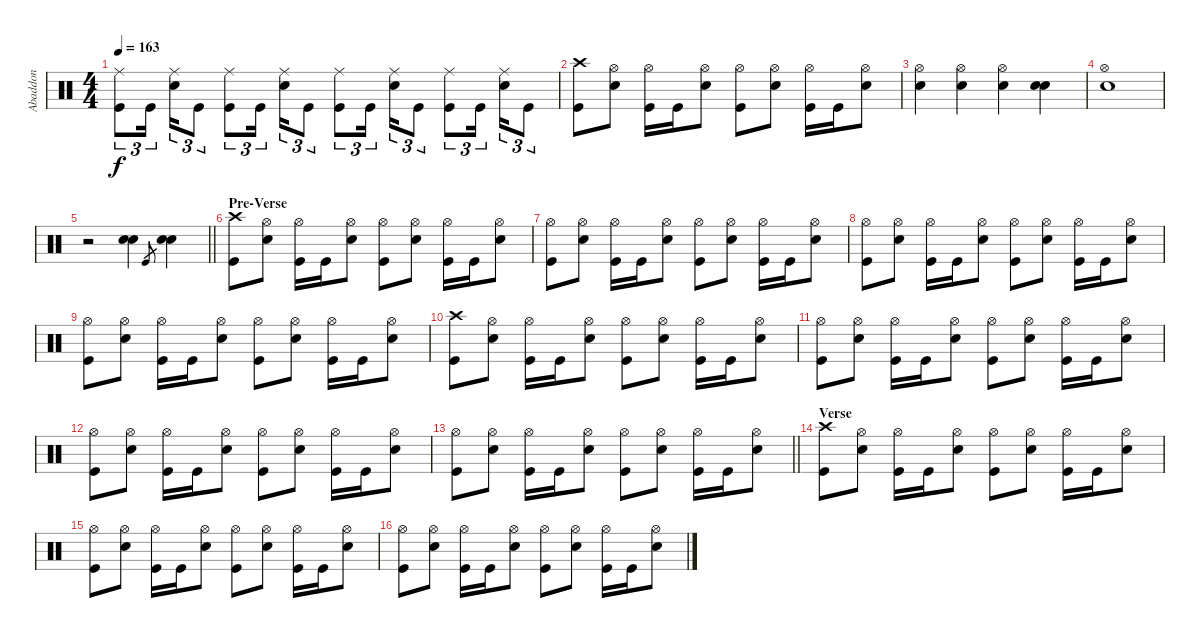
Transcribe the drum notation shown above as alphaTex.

\track ("Abaddon" "Abaddon") {instrument percussion}
\staff {score}
\articulation defaults
\ts (4 4)
\tempo 163
\clef neutral
\ks c
("Ride (middle)" "Kick (hit)").8{tu (3 2) dy f} "Kick (hit)".16{tu (3 2) beam splitsecondary} ("Ride (middle)" "Electric Snare (hit)").16{tu (3 2)} "Kick (hit)".8{tu (3 2)} ("Ride (middle)" "Kick (hit)").8{tu (3 2)} "Kick (hit)".16{tu (3 2) beam splitsecondary} ("Ride (middle)" "Electric Snare (hit)").16{tu (3 2)} "Kick (hit)".8{tu (3 2)} ("Ride (middle)" "Kick (hit)").8{tu (3 2)} "Kick (hit)".16{tu (3 2) beam splitsecondary} ("Ride (middle)" "Electric Snare (hit)").16{tu (3 2)} "Kick (hit)".8{tu (3 2)} ("Ride (middle)" "Kick (hit)").8{tu (3 2)} "Kick (hit)".16{tu (3 2) beam splitsecondary} ("Ride (middle)" "Electric Snare (hit)").16{tu (3 2)} "Kick (hit)".8{tu (3 2)} |
("Crash high (hit)" "Kick (hit)").8 ("Hi-Hat (open)" "Electric Snare (hit)").8 ("Hi-Hat (open)" "Kick (hit)").16 "Kick (hit)".16 ("Hi-Hat (open)" "Electric Snare (hit)").8 ("Hi-Hat (open)" "Kick (hit)").8 ("Hi-Hat (open)" "Electric Snare (hit)").8 ("Hi-Hat (open)" "Kick (hit)").16 "Kick (hit)".16 ("Hi-Hat (open)" "Electric Snare (hit)").8 |
("Hi-Hat (open)" "Electric Snare (hit)").4 ("Hi-Hat (open)" "Electric Snare (hit)").4 ("Hi-Hat (open)" "Electric Snare (hit)").4 ("Electric Snare (hit)" "Electric Snare (hit)").4 |
("Hi-Hat (open)" "Electric Snare (hit)").1 |
\barLineRight lightlight
r.2 ("Electric Snare (hit)" "Electric Snare (hit)").4 "Kick (hit)".8{gr} ("Electric Snare (hit)" "Electric Snare (hit)").4 |
\section ("" "Pre-Verse")
("Crash high (hit)" "Kick (hit)").8 ("Hi-Hat (open)" "Electric Snare (hit)").8 ("Hi-Hat (open)" "Kick (hit)").16 "Kick (hit)".16 ("Hi-Hat (open)" "Electric Snare (hit)").8 ("Hi-Hat (open)" "Kick (hit)").8 ("Hi-Hat (open)" "Electric Snare (hit)").8 ("Hi-Hat (open)" "Kick (hit)").16 "Kick (hit)".16 ("Hi-Hat (open)" "Electric Snare (hit)").8 |
("Hi-Hat (open)" "Kick (hit)").8 ("Hi-Hat (open)" "Electric Snare (hit)").8 ("Hi-Hat (open)" "Kick (hit)").16 "Kick (hit)".16 ("Hi-Hat (open)" "Electric Snare (hit)").8 ("Hi-Hat (open)" "Kick (hit)").8 ("Hi-Hat (open)" "Electric Snare (hit)").8 ("Hi-Hat (open)" "Kick (hit)").16 "Kick (hit)".16 ("Hi-Hat (open)" "Electric Snare (hit)").8 |
("Hi-Hat (open)" "Kick (hit)").8 ("Hi-Hat (open)" "Electric Snare (hit)").8 ("Hi-Hat (open)" "Kick (hit)").16 "Kick (hit)".16 ("Hi-Hat (open)" "Electric Snare (hit)").8 ("Hi-Hat (open)" "Kick (hit)").8 ("Hi-Hat (open)" "Electric Snare (hit)").8 ("Hi-Hat (open)" "Kick (hit)").16 "Kick (hit)".16 ("Hi-Hat (open)" "Electric Snare (hit)").8 |
("Hi-Hat (open)" "Kick (hit)").8 ("Hi-Hat (open)" "Electric Snare (hit)").8 ("Hi-Hat (open)" "Kick (hit)").16 "Kick (hit)".16 ("Hi-Hat (open)" "Electric Snare (hit)").8 ("Hi-Hat (open)" "Kick (hit)").8 ("Hi-Hat (open)" "Electric Snare (hit)").8 ("Hi-Hat (open)" "Kick (hit)").16 "Kick (hit)".16 ("Hi-Hat (open)" "Electric Snare (hit)").8 |
("Crash high (hit)" "Kick (hit)").8 ("Hi-Hat (open)" "Electric Snare (hit)").8 ("Hi-Hat (open)" "Kick (hit)").16 "Kick (hit)".16 ("Hi-Hat (open)" "Electric Snare (hit)").8 ("Hi-Hat (open)" "Kick (hit)").8 ("Hi-Hat (open)" "Electric Snare (hit)").8 ("Hi-Hat (open)" "Kick (hit)").16 "Kick (hit)".16 ("Hi-Hat (open)" "Electric Snare (hit)").8 |
("Hi-Hat (open)" "Kick (hit)").8 ("Hi-Hat (open)" "Electric Snare (hit)").8 ("Hi-Hat (open)" "Kick (hit)").16 "Kick (hit)".16 ("Hi-Hat (open)" "Electric Snare (hit)").8 ("Hi-Hat (open)" "Kick (hit)").8 ("Hi-Hat (open)" "Electric Snare (hit)").8 ("Hi-Hat (open)" "Kick (hit)").16 "Kick (hit)".16 ("Hi-Hat (open)" "Electric Snare (hit)").8 |
("Hi-Hat (open)" "Kick (hit)").8 ("Hi-Hat (open)" "Electric Snare (hit)").8 ("Hi-Hat (open)" "Kick (hit)").16 "Kick (hit)".16 ("Hi-Hat (open)" "Electric Snare (hit)").8 ("Hi-Hat (open)" "Kick (hit)").8 ("Hi-Hat (open)" "Electric Snare (hit)").8 ("Hi-Hat (open)" "Kick (hit)").16 "Kick (hit)".16 ("Hi-Hat (open)" "Electric Snare (hit)").8 |
\barLineRight lightlight
("Hi-Hat (open)" "Kick (hit)").8 ("Hi-Hat (open)" "Electric Snare (hit)").8 ("Hi-Hat (open)" "Kick (hit)").16 "Kick (hit)".16 ("Hi-Hat (open)" "Electric Snare (hit)").8 ("Hi-Hat (open)" "Kick (hit)").8 ("Hi-Hat (open)" "Electric Snare (hit)").8 ("Hi-Hat (open)" "Kick (hit)").16 "Kick (hit)".16 ("Hi-Hat (open)" "Electric Snare (hit)").8 |
\section ("" "Verse")
("Crash high (hit)" "Kick (hit)").8 ("Hi-Hat (open)" "Electric Snare (hit)").8 ("Hi-Hat (open)" "Kick (hit)").16 "Kick (hit)".16 ("Hi-Hat (open)" "Electric Snare (hit)").8 ("Hi-Hat (open)" "Kick (hit)").8 ("Hi-Hat (open)" "Electric Snare (hit)").8 ("Hi-Hat (open)" "Kick (hit)").16 "Kick (hit)".16 ("Hi-Hat (open)" "Electric Snare (hit)").8 |
("Hi-Hat (open)" "Kick (hit)").8 ("Hi-Hat (open)" "Electric Snare (hit)").8 ("Hi-Hat (open)" "Kick (hit)").16 "Kick (hit)".16 ("Hi-Hat (open)" "Electric Snare (hit)").8 ("Hi-Hat (open)" "Kick (hit)").8 ("Hi-Hat (open)" "Electric Snare (hit)").8 ("Hi-Hat (open)" "Kick (hit)").16 "Kick (hit)".16 ("Hi-Hat (open)" "Electric Snare (hit)").8 |
("Hi-Hat (open)" "Kick (hit)").8 ("Hi-Hat (open)" "Electric Snare (hit)").8 ("Hi-Hat (open)" "Kick (hit)").16 "Kick (hit)".16 ("Hi-Hat (open)" "Electric Snare (hit)").8 ("Hi-Hat (open)" "Kick (hit)").8 ("Hi-Hat (open)" "Electric Snare (hit)").8 ("Hi-Hat (open)" "Kick (hit)").16 "Kick (hit)".16 ("Hi-Hat (open)" "Electric Snare (hit)").8
